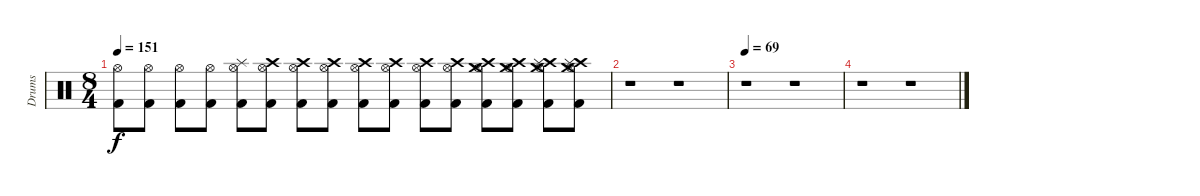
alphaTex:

\track ("Drums" "Drums") {instrument percussion}
\staff {score}
\articulation defaults
\ts (8 4)
\tempo 151
\clef neutral
\ks c
("Hi-Hat (open)" "Kick (hit) 2").8{dy f} ("Hi-Hat (open)" "Kick (hit) 2").8 ("Hi-Hat (open)" "Kick (hit) 2").8 ("Hi-Hat (open)" "Kick (hit) 2").8 ("Splash (hit)" "Hi-Hat (open)" "Kick (hit) 2").8 ("Crash high (hit)" "Hi-Hat (open)" "Kick (hit) 2").8 ("Crash high (hit)" "Hi-Hat (open)" "Kick (hit) 2").8 ("Crash high (hit)" "Hi-Hat (open)" "Kick (hit) 2").8 ("Crash high (hit)" "Hi-Hat (open)" "Kick (hit) 2").8 ("Crash high (hit)" "Hi-Hat (open)" "Kick (hit) 2").8 ("Crash high (hit)" "Hi-Hat (open)" "Kick (hit) 2").8 ("Crash high (hit)" "Hi-Hat (open)" "Kick (hit) 2").8 ("Crash medium (hit)" "Crash high (hit)" "Hi-Hat (open)" "Kick (hit) 2").8 ("Crash medium (hit)" "Crash high (hit)" "Hi-Hat (open)" "Kick (hit) 2").8 ("Crash medium (hit)" "Crash high (hit)" "Splash (hit)" "Hi-Hat (open)" "Kick (hit) 2").8 ("Crash medium (hit)" "Crash high (hit)" "Splash (hit)" "Hi-Hat (open)" "Kick (hit) 2").8 |
r.1 r.1 |
\tempo 69
r.1 r.1 |
r.1 r.1
